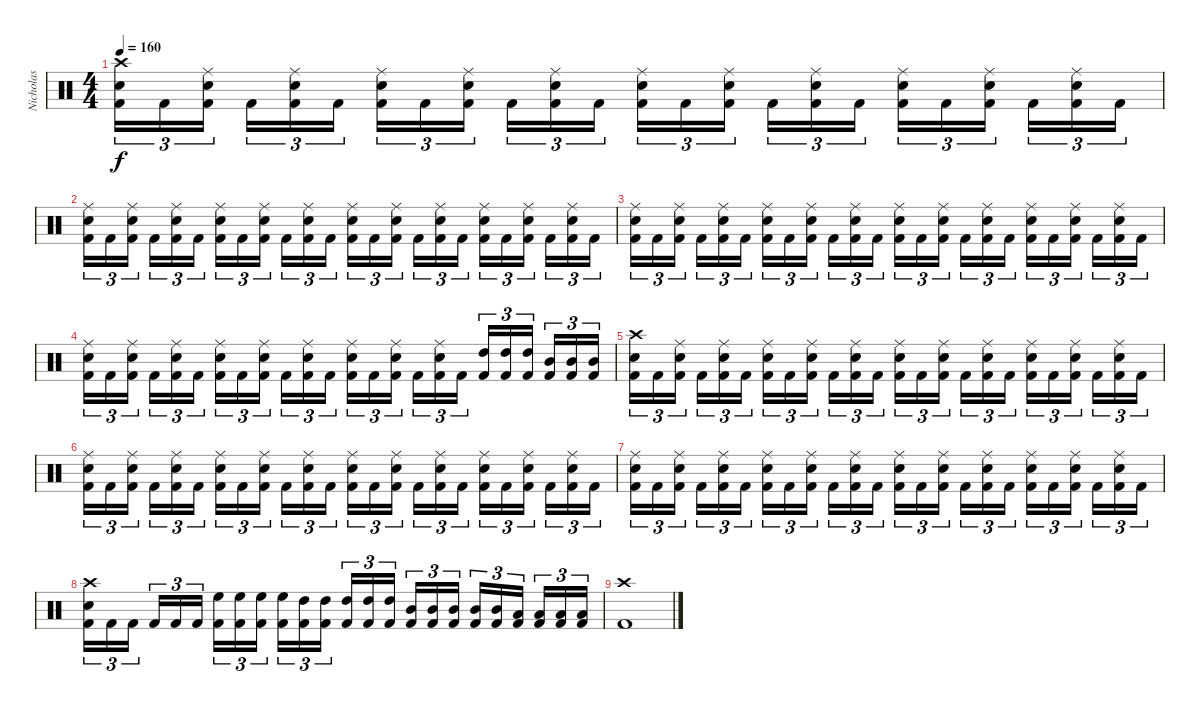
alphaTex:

\track ("Nicholas" "Nicholas") {instrument percussion}
\staff {score}
\articulation defaults
\ts (4 4)
\tempo 160
\clef neutral
\ks c
("Kick (hit) 2" "Snare (hit) 2" "Crash high (hit)").16{tu (3 2) dy f} "Kick (hit) 2".16{tu (3 2)} ("Kick (hit) 2" "Snare (hit) 2" "Ride (middle)").16{tu (3 2)} "Kick (hit) 2".16{tu (3 2)} ("Kick (hit) 2" "Snare (hit) 2" "Ride (middle)").16{tu (3 2)} "Kick (hit) 2".16{tu (3 2)} ("Kick (hit) 2" "Snare (hit) 2" "Ride (middle)").16{tu (3 2)} "Kick (hit) 2".16{tu (3 2)} ("Kick (hit) 2" "Snare (hit) 2" "Ride (middle)").16{tu (3 2)} "Kick (hit) 2".16{tu (3 2)} ("Kick (hit) 2" "Snare (hit) 2" "Ride (middle)").16{tu (3 2)} "Kick (hit) 2".16{tu (3 2)} ("Kick (hit) 2" "Snare (hit) 2" "Ride (middle)").16{tu (3 2)} "Kick (hit) 2".16{tu (3 2)} ("Kick (hit) 2" "Snare (hit) 2" "Ride (middle)").16{tu (3 2)} "Kick (hit) 2".16{tu (3 2)} ("Kick (hit) 2" "Snare (hit) 2" "Ride (middle)").16{tu (3 2)} "Kick (hit) 2".16{tu (3 2)} ("Kick (hit) 2" "Snare (hit) 2" "Ride (middle)").16{tu (3 2)} "Kick (hit) 2".16{tu (3 2)} ("Kick (hit) 2" "Snare (hit) 2" "Ride (middle)").16{tu (3 2)} "Kick (hit) 2".16{tu (3 2)} ("Kick (hit) 2" "Snare (hit) 2" "Ride (middle)").16{tu (3 2)} "Kick (hit) 2".16{tu (3 2)} |
("Kick (hit) 2" "Snare (hit) 2" "Ride (middle)").16{tu (3 2)} "Kick (hit) 2".16{tu (3 2)} ("Kick (hit) 2" "Snare (hit) 2" "Ride (middle)").16{tu (3 2)} "Kick (hit) 2".16{tu (3 2)} ("Kick (hit) 2" "Snare (hit) 2" "Ride (middle)").16{tu (3 2)} "Kick (hit) 2".16{tu (3 2)} ("Kick (hit) 2" "Snare (hit) 2" "Ride (middle)").16{tu (3 2)} "Kick (hit) 2".16{tu (3 2)} ("Kick (hit) 2" "Snare (hit) 2" "Ride (middle)").16{tu (3 2)} "Kick (hit) 2".16{tu (3 2)} ("Kick (hit) 2" "Snare (hit) 2" "Ride (middle)").16{tu (3 2)} "Kick (hit) 2".16{tu (3 2)} ("Kick (hit) 2" "Snare (hit) 2" "Ride (middle)").16{tu (3 2)} "Kick (hit) 2".16{tu (3 2)} ("Kick (hit) 2" "Snare (hit) 2" "Ride (middle)").16{tu (3 2)} "Kick (hit) 2".16{tu (3 2)} ("Kick (hit) 2" "Snare (hit) 2" "Ride (middle)").16{tu (3 2)} "Kick (hit) 2".16{tu (3 2)} ("Kick (hit) 2" "Snare (hit) 2" "Ride (middle)").16{tu (3 2)} "Kick (hit) 2".16{tu (3 2)} ("Kick (hit) 2" "Snare (hit) 2" "Ride (middle)").16{tu (3 2)} "Kick (hit) 2".16{tu (3 2)} ("Kick (hit) 2" "Snare (hit) 2" "Ride (middle)").16{tu (3 2)} "Kick (hit) 2".16{tu (3 2)} |
("Kick (hit) 2" "Snare (hit) 2" "Ride (middle)").16{tu (3 2)} "Kick (hit) 2".16{tu (3 2)} ("Kick (hit) 2" "Snare (hit) 2" "Ride (middle)").16{tu (3 2)} "Kick (hit) 2".16{tu (3 2)} ("Kick (hit) 2" "Snare (hit) 2" "Ride (middle)").16{tu (3 2)} "Kick (hit) 2".16{tu (3 2)} ("Kick (hit) 2" "Snare (hit) 2" "Ride (middle)").16{tu (3 2)} "Kick (hit) 2".16{tu (3 2)} ("Kick (hit) 2" "Snare (hit) 2" "Ride (middle)").16{tu (3 2)} "Kick (hit) 2".16{tu (3 2)} ("Kick (hit) 2" "Snare (hit) 2" "Ride (middle)").16{tu (3 2)} "Kick (hit) 2".16{tu (3 2)} ("Kick (hit) 2" "Snare (hit) 2" "Ride (middle)").16{tu (3 2)} "Kick (hit) 2".16{tu (3 2)} ("Kick (hit) 2" "Snare (hit) 2" "Ride (middle)").16{tu (3 2)} "Kick (hit) 2".16{tu (3 2)} ("Kick (hit) 2" "Snare (hit) 2" "Ride (middle)").16{tu (3 2)} "Kick (hit) 2".16{tu (3 2)} ("Kick (hit) 2" "Snare (hit) 2" "Ride (middle)").16{tu (3 2)} "Kick (hit) 2".16{tu (3 2)} ("Kick (hit) 2" "Snare (hit) 2" "Ride (middle)").16{tu (3 2)} "Kick (hit) 2".16{tu (3 2)} ("Kick (hit) 2" "Snare (hit) 2" "Ride (middle)").16{tu (3 2)} "Kick (hit) 2".16{tu (3 2)} |
("Kick (hit) 2" "Snare (hit) 2" "Ride (middle)").16{tu (3 2)} "Kick (hit) 2".16{tu (3 2)} ("Kick (hit) 2" "Snare (hit) 2" "Ride (middle)").16{tu (3 2)} "Kick (hit) 2".16{tu (3 2)} ("Kick (hit) 2" "Snare (hit) 2" "Ride (middle)").16{tu (3 2)} "Kick (hit) 2".16{tu (3 2)} ("Kick (hit) 2" "Snare (hit) 2" "Ride (middle)").16{tu (3 2)} "Kick (hit) 2".16{tu (3 2)} ("Kick (hit) 2" "Snare (hit) 2" "Ride (middle)").16{tu (3 2)} "Kick (hit) 2".16{tu (3 2)} ("Kick (hit) 2" "Snare (hit) 2" "Ride (middle)").16{tu (3 2)} "Kick (hit) 2".16{tu (3 2)} ("Kick (hit) 2" "Snare (hit) 2" "Ride (middle)").16{tu (3 2)} "Kick (hit) 2".16{tu (3 2)} ("Kick (hit) 2" "Snare (hit) 2" "Ride (middle)").16{tu (3 2)} "Kick (hit) 2".16{tu (3 2)} ("Kick (hit) 2" "Snare (hit) 2" "Ride (middle)").16{tu (3 2)} "Kick (hit) 2".16{tu (3 2)} ("Kick (hit) 2" "High Tom (hit)").16{tu (3 2)} ("Kick (hit) 2" "High Tom (hit)").16{tu (3 2)} ("Kick (hit) 2" "High Tom (hit)").16{tu (3 2)} ("Kick (hit) 2" "Mid Tom (hit)").16{tu (3 2)} ("Kick (hit) 2" "Mid Tom (hit)").16{tu (3 2)} ("Kick (hit) 2" "Mid Tom (hit)").16{tu (3 2)} |
("Kick (hit) 2" "Snare (hit) 2" "Crash high (hit)").16{tu (3 2)} "Kick (hit) 2".16{tu (3 2)} ("Kick (hit) 2" "Snare (hit) 2" "Ride (middle)").16{tu (3 2)} "Kick (hit) 2".16{tu (3 2)} ("Kick (hit) 2" "Snare (hit) 2" "Ride (middle)").16{tu (3 2)} "Kick (hit) 2".16{tu (3 2)} ("Kick (hit) 2" "Snare (hit) 2" "Ride (middle)").16{tu (3 2)} "Kick (hit) 2".16{tu (3 2)} ("Kick (hit) 2" "Snare (hit) 2" "Ride (middle)").16{tu (3 2)} "Kick (hit) 2".16{tu (3 2)} ("Kick (hit) 2" "Snare (hit) 2" "Ride (middle)").16{tu (3 2)} "Kick (hit) 2".16{tu (3 2)} ("Kick (hit) 2" "Snare (hit) 2" "Ride (middle)").16{tu (3 2)} "Kick (hit) 2".16{tu (3 2)} ("Kick (hit) 2" "Snare (hit) 2" "Ride (middle)").16{tu (3 2)} "Kick (hit) 2".16{tu (3 2)} ("Kick (hit) 2" "Snare (hit) 2" "Ride (middle)").16{tu (3 2)} "Kick (hit) 2".16{tu (3 2)} ("Kick (hit) 2" "Snare (hit) 2" "Ride (middle)").16{tu (3 2)} "Kick (hit) 2".16{tu (3 2)} ("Kick (hit) 2" "Snare (hit) 2" "Ride (middle)").16{tu (3 2)} "Kick (hit) 2".16{tu (3 2)} ("Kick (hit) 2" "Snare (hit) 2" "Ride (middle)").16{tu (3 2)} "Kick (hit) 2".16{tu (3 2)} |
("Kick (hit) 2" "Snare (hit) 2" "Ride (middle)").16{tu (3 2)} "Kick (hit) 2".16{tu (3 2)} ("Kick (hit) 2" "Snare (hit) 2" "Ride (middle)").16{tu (3 2)} "Kick (hit) 2".16{tu (3 2)} ("Kick (hit) 2" "Snare (hit) 2" "Ride (middle)").16{tu (3 2)} "Kick (hit) 2".16{tu (3 2)} ("Kick (hit) 2" "Snare (hit) 2" "Ride (middle)").16{tu (3 2)} "Kick (hit) 2".16{tu (3 2)} ("Kick (hit) 2" "Snare (hit) 2" "Ride (middle)").16{tu (3 2)} "Kick (hit) 2".16{tu (3 2)} ("Kick (hit) 2" "Snare (hit) 2" "Ride (middle)").16{tu (3 2)} "Kick (hit) 2".16{tu (3 2)} ("Kick (hit) 2" "Snare (hit) 2" "Ride (middle)").16{tu (3 2)} "Kick (hit) 2".16{tu (3 2)} ("Kick (hit) 2" "Snare (hit) 2" "Ride (middle)").16{tu (3 2)} "Kick (hit) 2".16{tu (3 2)} ("Kick (hit) 2" "Snare (hit) 2" "Ride (middle)").16{tu (3 2)} "Kick (hit) 2".16{tu (3 2)} ("Kick (hit) 2" "Snare (hit) 2" "Ride (middle)").16{tu (3 2)} "Kick (hit) 2".16{tu (3 2)} ("Kick (hit) 2" "Snare (hit) 2" "Ride (middle)").16{tu (3 2)} "Kick (hit) 2".16{tu (3 2)} ("Kick (hit) 2" "Snare (hit) 2" "Ride (middle)").16{tu (3 2)} "Kick (hit) 2".16{tu (3 2)} |
("Kick (hit) 2" "Snare (hit) 2" "Ride (middle)").16{tu (3 2)} "Kick (hit) 2".16{tu (3 2)} ("Kick (hit) 2" "Snare (hit) 2" "Ride (middle)").16{tu (3 2)} "Kick (hit) 2".16{tu (3 2)} ("Kick (hit) 2" "Snare (hit) 2" "Ride (middle)").16{tu (3 2)} "Kick (hit) 2".16{tu (3 2)} ("Kick (hit) 2" "Snare (hit) 2" "Ride (middle)").16{tu (3 2)} "Kick (hit) 2".16{tu (3 2)} ("Kick (hit) 2" "Snare (hit) 2" "Ride (middle)").16{tu (3 2)} "Kick (hit) 2".16{tu (3 2)} ("Kick (hit) 2" "Snare (hit) 2" "Ride (middle)").16{tu (3 2)} "Kick (hit) 2".16{tu (3 2)} ("Kick (hit) 2" "Snare (hit) 2" "Ride (middle)").16{tu (3 2)} "Kick (hit) 2".16{tu (3 2)} ("Kick (hit) 2" "Snare (hit) 2" "Ride (middle)").16{tu (3 2)} "Kick (hit) 2".16{tu (3 2)} ("Kick (hit) 2" "Snare (hit) 2" "Ride (middle)").16{tu (3 2)} "Kick (hit) 2".16{tu (3 2)} ("Kick (hit) 2" "Snare (hit) 2" "Ride (middle)").16{tu (3 2)} "Kick (hit) 2".16{tu (3 2)} ("Kick (hit) 2" "Snare (hit) 2" "Ride (middle)").16{tu (3 2)} "Kick (hit) 2".16{tu (3 2)} ("Kick (hit) 2" "Snare (hit) 2" "Ride (middle)").16{tu (3 2)} "Kick (hit) 2".16{tu (3 2)} |
("Kick (hit) 2" "Snare (hit) 2" "Crash high (hit)").16{tu (3 2)} "Kick (hit) 2".16{tu (3 2)} "Kick (hit) 2".16{tu (3 2)} "Kick (hit) 2".16{tu (3 2)} "Kick (hit) 2".16{tu (3 2)} "Kick (hit) 2".16{tu (3 2)} ("Kick (hit) 2" "High Floor Tom (hit)").16{tu (3 2)} ("Kick (hit) 2" "High Floor Tom (hit)").16{tu (3 2)} ("Kick (hit) 2" "High Floor Tom (hit)").16{tu (3 2)} ("Kick (hit) 2" "High Floor Tom (hit)").16{tu (3 2)} ("Kick (hit) 2" "High Tom (hit)").16{tu (3 2)} ("Kick (hit) 2" "High Tom (hit)").16{tu (3 2)} ("Kick (hit) 2" "High Tom (hit)").16{tu (3 2)} ("Kick (hit) 2" "High Tom (hit)").16{tu (3 2)} ("Kick (hit) 2" "High Tom (hit)").16{tu (3 2)} ("Kick (hit) 2" "Mid Tom (hit)").16{tu (3 2)} ("Kick (hit) 2" "Mid Tom (hit)").16{tu (3 2)} ("Kick (hit) 2" "Mid Tom (hit)").16{tu (3 2)} ("Kick (hit) 2" "Mid Tom (hit)").16{tu (3 2)} ("Kick (hit) 2" "Mid Tom (hit)").16{tu (3 2)} ("Kick (hit) 2" "Low Tom (hit)").16{tu (3 2)} ("Kick (hit) 2" "Low Tom (hit)").16{tu (3 2)} ("Kick (hit) 2" "Low Tom (hit)").16{tu (3 2)} ("Kick (hit) 2" "Low Tom (hit)").16{tu (3 2)} |
("Kick (hit) 2" "Crash high (hit)").1
